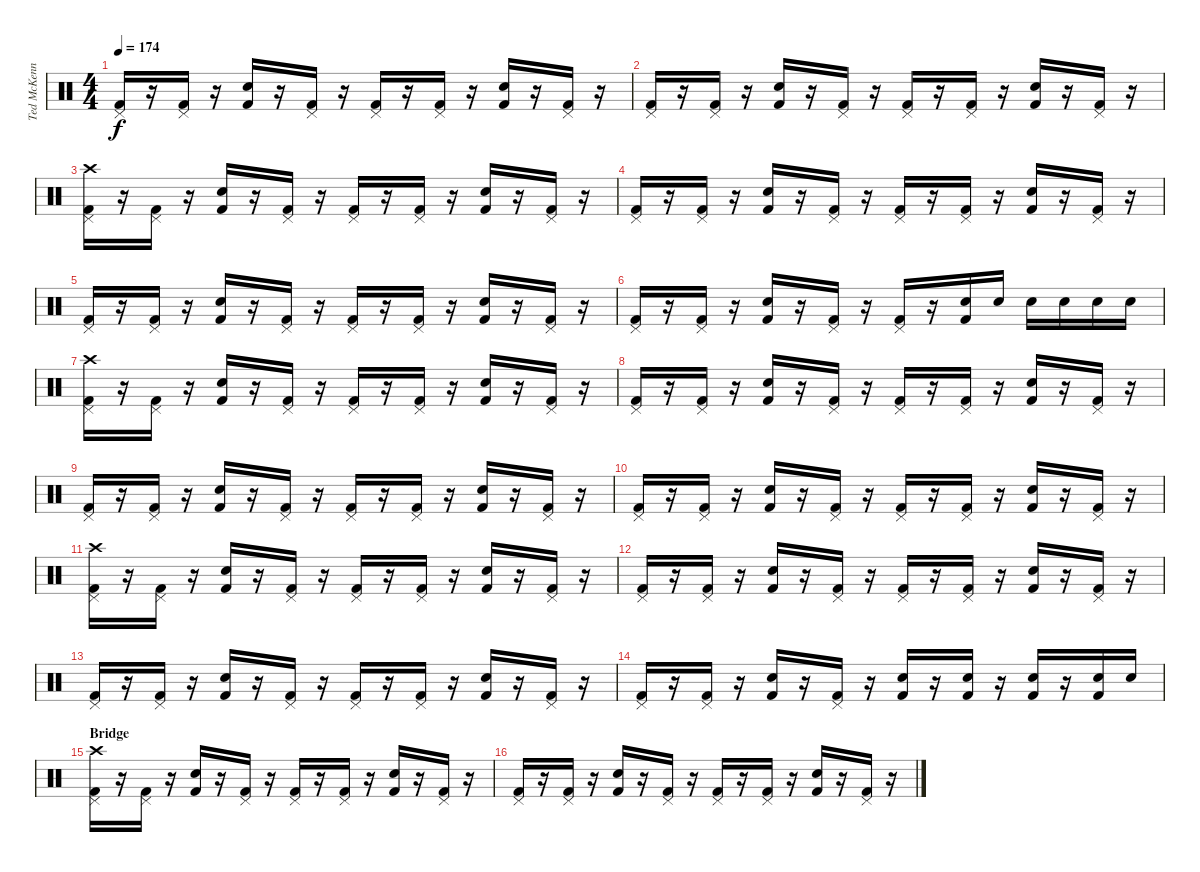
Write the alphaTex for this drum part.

\track ("Ted McKenna" "Ted McKenn") {instrument percussion}
\staff {score}
\articulation defaults
\ts (4 4)
\tempo 174
\clef neutral
\ks c
("Pedal Hi-Hat (hit)" "Kick (hit) 2").16{dy f} r.16 ("Pedal Hi-Hat (hit)" "Kick (hit) 2").16 r.16 ("Snare (hit) 2" "Kick (hit) 2").16 r.16 ("Pedal Hi-Hat (hit)" "Kick (hit) 2").16 r.16 ("Pedal Hi-Hat (hit)" "Kick (hit) 2").16 r.16 ("Pedal Hi-Hat (hit)" "Kick (hit) 2").16 r.16 ("Snare (hit) 2" "Kick (hit) 2").16 r.16 ("Pedal Hi-Hat (hit)" "Kick (hit) 2").16 r.16 |
("Pedal Hi-Hat (hit)" "Kick (hit) 2").16 r.16 ("Pedal Hi-Hat (hit)" "Kick (hit) 2").16 r.16 ("Snare (hit) 2" "Kick (hit) 2").16 r.16 ("Pedal Hi-Hat (hit)" "Kick (hit) 2").16 r.16 ("Pedal Hi-Hat (hit)" "Kick (hit) 2").16 r.16 ("Pedal Hi-Hat (hit)" "Kick (hit) 2").16 r.16 ("Snare (hit) 2" "Kick (hit) 2").16 r.16 ("Pedal Hi-Hat (hit)" "Kick (hit) 2").16 r.16 |
("Crash high (hit)" "Pedal Hi-Hat (hit)" "Kick (hit) 2").16 r.16 ("Pedal Hi-Hat (hit)" "Kick (hit) 2").16 r.16 ("Snare (hit) 2" "Kick (hit) 2").16 r.16 ("Pedal Hi-Hat (hit)" "Kick (hit) 2").16 r.16 ("Pedal Hi-Hat (hit)" "Kick (hit) 2").16 r.16 ("Pedal Hi-Hat (hit)" "Kick (hit) 2").16 r.16 ("Snare (hit) 2" "Kick (hit) 2").16 r.16 ("Pedal Hi-Hat (hit)" "Kick (hit) 2").16 r.16 |
("Pedal Hi-Hat (hit)" "Kick (hit) 2").16 r.16 ("Pedal Hi-Hat (hit)" "Kick (hit) 2").16 r.16 ("Snare (hit) 2" "Kick (hit) 2").16 r.16 ("Pedal Hi-Hat (hit)" "Kick (hit) 2").16 r.16 ("Pedal Hi-Hat (hit)" "Kick (hit) 2").16 r.16 ("Pedal Hi-Hat (hit)" "Kick (hit) 2").16 r.16 ("Snare (hit) 2" "Kick (hit) 2").16 r.16 ("Pedal Hi-Hat (hit)" "Kick (hit) 2").16 r.16 |
("Pedal Hi-Hat (hit)" "Kick (hit) 2").16 r.16 ("Pedal Hi-Hat (hit)" "Kick (hit) 2").16 r.16 ("Snare (hit) 2" "Kick (hit) 2").16 r.16 ("Pedal Hi-Hat (hit)" "Kick (hit) 2").16 r.16 ("Pedal Hi-Hat (hit)" "Kick (hit) 2").16 r.16 ("Pedal Hi-Hat (hit)" "Kick (hit) 2").16 r.16 ("Snare (hit) 2" "Kick (hit) 2").16 r.16 ("Pedal Hi-Hat (hit)" "Kick (hit) 2").16 r.16 |
("Pedal Hi-Hat (hit)" "Kick (hit) 2").16 r.16 ("Pedal Hi-Hat (hit)" "Kick (hit) 2").16 r.16 ("Snare (hit) 2" "Kick (hit) 2").16 r.16 ("Pedal Hi-Hat (hit)" "Kick (hit) 2").16 r.16 ("Pedal Hi-Hat (hit)" "Kick (hit) 2").16 r.16 ("Electric Snare (hit)" "Kick (hit) 2").16 "Electric Snare (hit)".16 "Snare (hit) 2".16 "Snare (hit) 2".16 "Snare (hit) 2".16 "Snare (hit) 2".16 |
("Crash high (hit)" "Pedal Hi-Hat (hit)" "Kick (hit) 2").16 r.16 ("Pedal Hi-Hat (hit)" "Kick (hit) 2").16 r.16 ("Snare (hit) 2" "Kick (hit) 2").16 r.16 ("Pedal Hi-Hat (hit)" "Kick (hit) 2").16 r.16 ("Pedal Hi-Hat (hit)" "Kick (hit) 2").16 r.16 ("Pedal Hi-Hat (hit)" "Kick (hit) 2").16 r.16 ("Snare (hit) 2" "Kick (hit) 2").16 r.16 ("Pedal Hi-Hat (hit)" "Kick (hit) 2").16 r.16 |
("Pedal Hi-Hat (hit)" "Kick (hit) 2").16 r.16 ("Pedal Hi-Hat (hit)" "Kick (hit) 2").16 r.16 ("Snare (hit) 2" "Kick (hit) 2").16 r.16 ("Pedal Hi-Hat (hit)" "Kick (hit) 2").16 r.16 ("Pedal Hi-Hat (hit)" "Kick (hit) 2").16 r.16 ("Pedal Hi-Hat (hit)" "Kick (hit) 2").16 r.16 ("Snare (hit) 2" "Kick (hit) 2").16 r.16 ("Pedal Hi-Hat (hit)" "Kick (hit) 2").16 r.16 |
("Pedal Hi-Hat (hit)" "Kick (hit) 2").16 r.16 ("Pedal Hi-Hat (hit)" "Kick (hit) 2").16 r.16 ("Snare (hit) 2" "Kick (hit) 2").16 r.16 ("Pedal Hi-Hat (hit)" "Kick (hit) 2").16 r.16 ("Pedal Hi-Hat (hit)" "Kick (hit) 2").16 r.16 ("Pedal Hi-Hat (hit)" "Kick (hit) 2").16 r.16 ("Snare (hit) 2" "Kick (hit) 2").16 r.16 ("Pedal Hi-Hat (hit)" "Kick (hit) 2").16 r.16 |
("Pedal Hi-Hat (hit)" "Kick (hit) 2").16 r.16 ("Pedal Hi-Hat (hit)" "Kick (hit) 2").16 r.16 ("Snare (hit) 2" "Kick (hit) 2").16 r.16 ("Pedal Hi-Hat (hit)" "Kick (hit) 2").16 r.16 ("Pedal Hi-Hat (hit)" "Kick (hit) 2").16 r.16 ("Pedal Hi-Hat (hit)" "Kick (hit) 2").16 r.16 ("Snare (hit) 2" "Kick (hit) 2").16 r.16 ("Pedal Hi-Hat (hit)" "Kick (hit) 2").16 r.16 |
("Crash high (hit)" "Pedal Hi-Hat (hit)" "Kick (hit) 2").16 r.16 ("Pedal Hi-Hat (hit)" "Kick (hit) 2").16 r.16 ("Snare (hit) 2" "Kick (hit) 2").16 r.16 ("Pedal Hi-Hat (hit)" "Kick (hit) 2").16 r.16 ("Pedal Hi-Hat (hit)" "Kick (hit) 2").16 r.16 ("Pedal Hi-Hat (hit)" "Kick (hit) 2").16 r.16 ("Snare (hit) 2" "Kick (hit) 2").16 r.16 ("Pedal Hi-Hat (hit)" "Kick (hit) 2").16 r.16 |
("Pedal Hi-Hat (hit)" "Kick (hit) 2").16 r.16 ("Pedal Hi-Hat (hit)" "Kick (hit) 2").16 r.16 ("Snare (hit) 2" "Kick (hit) 2").16 r.16 ("Pedal Hi-Hat (hit)" "Kick (hit) 2").16 r.16 ("Pedal Hi-Hat (hit)" "Kick (hit) 2").16 r.16 ("Pedal Hi-Hat (hit)" "Kick (hit) 2").16 r.16 ("Snare (hit) 2" "Kick (hit) 2").16 r.16 ("Pedal Hi-Hat (hit)" "Kick (hit) 2").16 r.16 |
("Pedal Hi-Hat (hit)" "Kick (hit) 2").16 r.16 ("Pedal Hi-Hat (hit)" "Kick (hit) 2").16 r.16 ("Snare (hit) 2" "Kick (hit) 2").16 r.16 ("Pedal Hi-Hat (hit)" "Kick (hit) 2").16 r.16 ("Pedal Hi-Hat (hit)" "Kick (hit) 2").16 r.16 ("Pedal Hi-Hat (hit)" "Kick (hit) 2").16 r.16 ("Snare (hit) 2" "Kick (hit) 2").16 r.16 ("Pedal Hi-Hat (hit)" "Kick (hit) 2").16 r.16 |
("Pedal Hi-Hat (hit)" "Kick (hit) 2").16 r.16 ("Pedal Hi-Hat (hit)" "Kick (hit) 2").16 r.16 ("Snare (hit) 2" "Kick (hit) 2").16 r.16 ("Pedal Hi-Hat (hit)" "Kick (hit) 2").16 r.16 ("Electric Snare (hit)" "Kick (hit) 2").16 r.16 ("Electric Snare (hit)" "Kick (hit) 2").16 r.16 ("Electric Snare (hit)" "Kick (hit) 2").16 r.16 ("Electric Snare (hit)" "Kick (hit) 2").16 "Electric Snare (hit)".16 |
\section ("" "Bridge")
("Crash high (hit)" "Pedal Hi-Hat (hit)" "Kick (hit) 2").16 r.16 ("Pedal Hi-Hat (hit)" "Kick (hit) 2").16 r.16 ("Snare (hit) 2" "Kick (hit) 2").16 r.16 ("Pedal Hi-Hat (hit)" "Kick (hit) 2").16 r.16 ("Pedal Hi-Hat (hit)" "Kick (hit) 2").16 r.16 ("Pedal Hi-Hat (hit)" "Kick (hit) 2").16 r.16 ("Snare (hit) 2" "Kick (hit) 2").16 r.16 ("Pedal Hi-Hat (hit)" "Kick (hit) 2").16 r.16 |
("Pedal Hi-Hat (hit)" "Kick (hit) 2").16 r.16 ("Pedal Hi-Hat (hit)" "Kick (hit) 2").16 r.16 ("Snare (hit) 2" "Kick (hit) 2").16 r.16 ("Pedal Hi-Hat (hit)" "Kick (hit) 2").16 r.16 ("Pedal Hi-Hat (hit)" "Kick (hit) 2").16 r.16 ("Pedal Hi-Hat (hit)" "Kick (hit) 2").16 r.16 ("Snare (hit) 2" "Kick (hit) 2").16 r.16 ("Pedal Hi-Hat (hit)" "Kick (hit) 2").16 r.16
